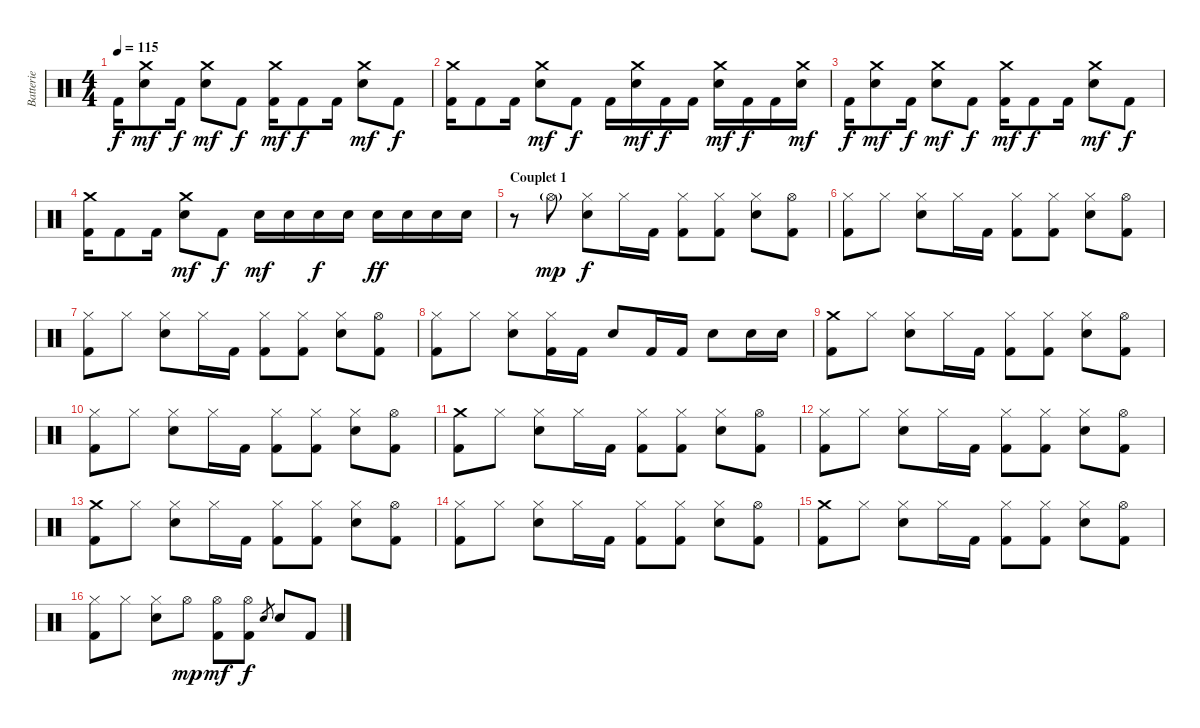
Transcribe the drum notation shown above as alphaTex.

\track ("Batterie" "Batterie") {instrument percussion}
\staff {score}
\articulation defaults
\ts (4 4)
\tempo 115
\clef neutral
\ks c "Kick (hit) 2".16{dy f}
("Crash medium (hit)" "Electric Snare (hit)").8{dy mf} "Kick (hit) 2".16{dy f} ("Crash medium (hit)" "Electric Snare (hit)").8{dy mf} "Kick (hit) 2".8{dy f} ("Crash medium (hit)" "Kick (hit) 2").16{dy mf} "Kick (hit) 2".8{dy f} "Kick (hit) 2".16 ("Crash medium (hit)" "Electric Snare (hit)").8{dy mf} "Kick (hit) 2".8{dy f} |
("Crash medium (hit)" "Kick (hit) 2").16 "Kick (hit) 2".8 "Kick (hit) 2".16 ("Crash medium (hit)" "Electric Snare (hit)").8{dy mf} "Kick (hit) 2".8{dy f} "Kick (hit) 2".16 ("Crash medium (hit)" "Electric Snare (hit)").16{dy mf} "Kick (hit) 2".16{dy f} "Kick (hit) 2".16 ("Crash medium (hit)" "Electric Snare (hit)").16{dy mf} "Kick (hit) 2".16{dy f} "Kick (hit) 2".16 ("Crash medium (hit)" "Electric Snare (hit)").16{dy mf} |
"Kick (hit) 2".16{dy f} ("Crash medium (hit)" "Electric Snare (hit)").8{dy mf} "Kick (hit) 2".16{dy f} ("Crash medium (hit)" "Electric Snare (hit)").8{dy mf} "Kick (hit) 2".8{dy f} ("Crash medium (hit)" "Kick (hit) 2").16{dy mf} "Kick (hit) 2".8{dy f} "Kick (hit) 2".16 ("Crash medium (hit)" "Electric Snare (hit)").8{dy mf} "Kick (hit) 2".8{dy f} |
("Crash medium (hit)" "Kick (hit) 2").16 "Kick (hit) 2".8 "Kick (hit) 2".16 ("Crash medium (hit)" "Electric Snare (hit)").8{dy mf} "Kick (hit) 2".8{dy f} "Electric Snare (hit)".16{dy mf} "Electric Snare (hit)".16 "Electric Snare (hit)".16{dy f} "Electric Snare (hit)".16 "Electric Snare (hit)".16{dy ff} "Electric Snare (hit)".16 "Electric Snare (hit)".16 "Electric Snare (hit)".16 |
\section ("" "Couplet 1")
r.8 "Hi-Hat (open)"{g}.8{dy mp} ("Hi-Hat (closed)" "Electric Snare (hit)").8{dy f} "Hi-Hat (closed)".16 "Kick (hit) 2".16 ("Hi-Hat (closed)" "Kick (hit) 2").8 ("Hi-Hat (closed)" "Kick (hit) 2").8 ("Hi-Hat (closed)" "Electric Snare (hit)").8 ("Hi-Hat (open)" "Kick (hit) 2").8 |
("Hi-Hat (closed)" "Kick (hit) 2").8 "Hi-Hat (closed)".8 ("Hi-Hat (closed)" "Electric Snare (hit)").8 "Hi-Hat (closed)".16 "Kick (hit) 2".16 ("Hi-Hat (closed)" "Kick (hit) 2").8 ("Hi-Hat (closed)" "Kick (hit) 2").8 ("Hi-Hat (closed)" "Electric Snare (hit)").8 ("Hi-Hat (open)" "Kick (hit) 2").8 |
("Hi-Hat (closed)" "Kick (hit) 2").8 "Hi-Hat (closed)".8 ("Hi-Hat (closed)" "Electric Snare (hit)").8 "Hi-Hat (closed)".16 "Kick (hit) 2".16 ("Hi-Hat (closed)" "Kick (hit) 2").8 ("Hi-Hat (closed)" "Kick (hit) 2").8 ("Hi-Hat (closed)" "Electric Snare (hit)").8 ("Hi-Hat (open)" "Kick (hit) 2").8 |
("Hi-Hat (closed)" "Kick (hit) 2").8 "Hi-Hat (closed)".8 ("Hi-Hat (closed)" "Electric Snare (hit)").8 ("Hi-Hat (closed)" "Kick (hit) 2").16 "Kick (hit) 2".16 "Electric Snare (hit)".8 "Kick (hit) 2".16 "Kick (hit) 2".16 "Electric Snare (hit)".8 "Electric Snare (hit)".16 "Electric Snare (hit)".16 |
("Crash medium (hit)" "Kick (hit) 2").8 "Hi-Hat (closed)".8 ("Hi-Hat (closed)" "Electric Snare (hit)").8 "Hi-Hat (closed)".16 "Kick (hit) 2".16 ("Hi-Hat (closed)" "Kick (hit) 2").8 ("Hi-Hat (closed)" "Kick (hit) 2").8 ("Hi-Hat (closed)" "Electric Snare (hit)").8 ("Hi-Hat (open)" "Kick (hit) 2").8 |
("Hi-Hat (closed)" "Kick (hit) 2").8 "Hi-Hat (closed)".8 ("Hi-Hat (closed)" "Electric Snare (hit)").8 "Hi-Hat (closed)".16 "Kick (hit) 2".16 ("Hi-Hat (closed)" "Kick (hit) 2").8 ("Hi-Hat (closed)" "Kick (hit) 2").8 ("Hi-Hat (closed)" "Electric Snare (hit)").8 ("Hi-Hat (open)" "Kick (hit) 2").8 |
("Crash medium (hit)" "Kick (hit) 2").8 "Hi-Hat (closed)".8 ("Hi-Hat (closed)" "Electric Snare (hit)").8 "Hi-Hat (closed)".16 "Kick (hit) 2".16 ("Hi-Hat (closed)" "Kick (hit) 2").8 ("Hi-Hat (closed)" "Kick (hit) 2").8 ("Hi-Hat (closed)" "Electric Snare (hit)").8 ("Hi-Hat (open)" "Kick (hit) 2").8 |
("Hi-Hat (closed)" "Kick (hit) 2").8 "Hi-Hat (closed)".8 ("Hi-Hat (closed)" "Electric Snare (hit)").8 "Hi-Hat (closed)".16 "Kick (hit) 2".16 ("Hi-Hat (closed)" "Kick (hit) 2").8 ("Hi-Hat (closed)" "Kick (hit) 2").8 ("Hi-Hat (closed)" "Electric Snare (hit)").8 ("Hi-Hat (open)" "Kick (hit) 2").8 |
("Crash medium (hit)" "Kick (hit) 2").8 "Hi-Hat (closed)".8 ("Hi-Hat (closed)" "Electric Snare (hit)").8 "Hi-Hat (closed)".16 "Kick (hit) 2".16 ("Hi-Hat (closed)" "Kick (hit) 2").8 ("Hi-Hat (closed)" "Kick (hit) 2").8 ("Hi-Hat (closed)" "Electric Snare (hit)").8 ("Hi-Hat (open)" "Kick (hit) 2").8 |
("Hi-Hat (closed)" "Kick (hit) 2").8 "Hi-Hat (closed)".8 ("Hi-Hat (closed)" "Electric Snare (hit)").8 "Hi-Hat (closed)".16 "Kick (hit) 2".16 ("Hi-Hat (closed)" "Kick (hit) 2").8 ("Hi-Hat (closed)" "Kick (hit) 2").8 ("Hi-Hat (closed)" "Electric Snare (hit)").8 ("Hi-Hat (open)" "Kick (hit) 2").8 |
("Crash medium (hit)" "Kick (hit) 2").8 "Hi-Hat (closed)".8 ("Hi-Hat (closed)" "Electric Snare (hit)").8 "Hi-Hat (closed)".16 "Kick (hit) 2".16 ("Hi-Hat (closed)" "Kick (hit) 2").8 ("Hi-Hat (closed)" "Kick (hit) 2").8 ("Hi-Hat (closed)" "Electric Snare (hit)").8 ("Hi-Hat (open)" "Kick (hit) 2").8 |
("Hi-Hat (closed)" "Kick (hit) 2").8 "Hi-Hat (closed)".8 ("Hi-Hat (closed)" "Electric Snare (hit)").8 "Hi-Hat (open)".8{dy mp} ("Hi-Hat (open)" "Kick (hit) 2").8{dy mf} ("Hi-Hat (open)" "Kick (hit) 2").8{dy f} "Electric Snare (hit)".8{gr} "Electric Snare (hit)".8 "Kick (hit) 2".8
